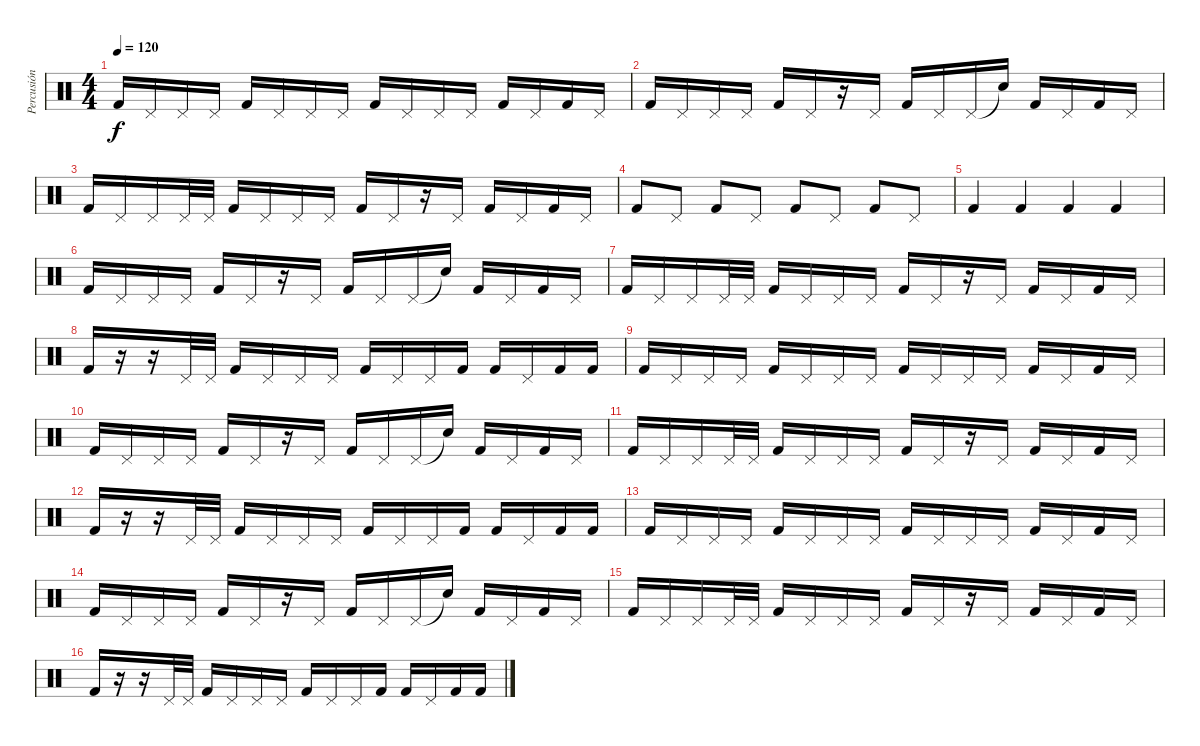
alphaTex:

\track ("Percusión" "Percusión") {instrument percussion}
\staff {score}
\articulation defaults
\ts (4 4)
\tempo 120
\clef neutral
\ks c "Kick (hit) 2".16{dy f} "Pedal Hi-Hat (hit)".16 "Pedal Hi-Hat (hit)".16 "Pedal Hi-Hat (hit)".16 "Kick (hit) 2".16 "Pedal Hi-Hat (hit)".16 "Pedal Hi-Hat (hit)".16 "Pedal Hi-Hat (hit)".16 "Kick (hit) 2".16 "Pedal Hi-Hat (hit)".16 "Pedal Hi-Hat (hit)".16 "Pedal Hi-Hat (hit)".16 "Kick (hit) 2".16 "Pedal Hi-Hat (hit)".16 "Kick (hit) 2".16 "Pedal Hi-Hat (hit)".16
|
"Kick (hit) 2".16 "Pedal Hi-Hat (hit)".16 "Pedal Hi-Hat (hit)".16 "Pedal Hi-Hat (hit)".16 "Kick (hit) 2".16 "Pedal Hi-Hat (hit)".16 r.16 "Pedal Hi-Hat (hit)".16 "Kick (hit) 2".16 "Pedal Hi-Hat (hit)".16 "Pedal Hi-Hat (hit)".16 "Snare (hit)"{t}.16 "Kick (hit) 2".16 "Pedal Hi-Hat (hit)".16 "Kick (hit) 2".16 "Pedal Hi-Hat (hit)".16 |
"Kick (hit) 2".16 "Pedal Hi-Hat (hit)".16 "Pedal Hi-Hat (hit)".16 "Pedal Hi-Hat (hit)".32 "Pedal Hi-Hat (hit)".32 "Kick (hit) 2".16 "Pedal Hi-Hat (hit)".16 "Pedal Hi-Hat (hit)".16 "Pedal Hi-Hat (hit)".16 "Kick (hit) 2".16 "Pedal Hi-Hat (hit)".16 r.16 "Pedal Hi-Hat (hit)".16 "Kick (hit) 2".16 "Pedal Hi-Hat (hit)".16 "Kick (hit) 2".16 "Pedal Hi-Hat (hit)".16 |
"Kick (hit) 2".8 "Pedal Hi-Hat (hit)".8 "Kick (hit) 2".8 "Pedal Hi-Hat (hit)".8 "Kick (hit) 2".8 "Pedal Hi-Hat (hit)".8 "Kick (hit) 2".8 "Pedal Hi-Hat (hit)".8 |
"Kick (hit) 2".4 "Kick (hit) 2".4 "Kick (hit) 2".4 "Kick (hit) 2".4 |
"Kick (hit) 2".16 "Pedal Hi-Hat (hit)".16 "Pedal Hi-Hat (hit)".16 "Pedal Hi-Hat (hit)".16 "Kick (hit) 2".16 "Pedal Hi-Hat (hit)".16 r.16 "Pedal Hi-Hat (hit)".16 "Kick (hit) 2".16 "Pedal Hi-Hat (hit)".16 "Pedal Hi-Hat (hit)".16 "Snare (hit)"{t}.16 "Kick (hit) 2".16 "Pedal Hi-Hat (hit)".16 "Kick (hit) 2".16 "Pedal Hi-Hat (hit)".16 |
"Kick (hit) 2".16 "Pedal Hi-Hat (hit)".16 "Pedal Hi-Hat (hit)".16 "Pedal Hi-Hat (hit)".32 "Pedal Hi-Hat (hit)".32 "Kick (hit) 2".16 "Pedal Hi-Hat (hit)".16 "Pedal Hi-Hat (hit)".16 "Pedal Hi-Hat (hit)".16 "Kick (hit) 2".16 "Pedal Hi-Hat (hit)".16 r.16 "Pedal Hi-Hat (hit)".16 "Kick (hit) 2".16 "Pedal Hi-Hat (hit)".16 "Kick (hit) 2".16 "Pedal Hi-Hat (hit)".16 |
"Kick (hit) 2".16 r.16 r.16 "Pedal Hi-Hat (hit)".32 "Pedal Hi-Hat (hit)".32 "Kick (hit) 2".16 "Pedal Hi-Hat (hit)".16 "Pedal Hi-Hat (hit)".16 "Pedal Hi-Hat (hit)".16 "Kick (hit) 2".16 "Pedal Hi-Hat (hit)".16 "Pedal Hi-Hat (hit)".16 "Kick (hit) 2".16 "Kick (hit) 2".16 "Pedal Hi-Hat (hit)".16 "Kick (hit) 2".16 "Kick (hit) 2".16 |
"Kick (hit) 2".16 "Pedal Hi-Hat (hit)".16 "Pedal Hi-Hat (hit)".16 "Pedal Hi-Hat (hit)".16 "Kick (hit) 2".16 "Pedal Hi-Hat (hit)".16 "Pedal Hi-Hat (hit)".16 "Pedal Hi-Hat (hit)".16 "Kick (hit) 2".16 "Pedal Hi-Hat (hit)".16 "Pedal Hi-Hat (hit)".16 "Pedal Hi-Hat (hit)".16 "Kick (hit) 2".16 "Pedal Hi-Hat (hit)".16 "Kick (hit) 2".16 "Pedal Hi-Hat (hit)".16 |
"Kick (hit) 2".16 "Pedal Hi-Hat (hit)".16 "Pedal Hi-Hat (hit)".16 "Pedal Hi-Hat (hit)".16 "Kick (hit) 2".16 "Pedal Hi-Hat (hit)".16 r.16 "Pedal Hi-Hat (hit)".16 "Kick (hit) 2".16 "Pedal Hi-Hat (hit)".16 "Pedal Hi-Hat (hit)".16 "Snare (hit)"{t}.16 "Kick (hit) 2".16 "Pedal Hi-Hat (hit)".16 "Kick (hit) 2".16 "Pedal Hi-Hat (hit)".16 |
"Kick (hit) 2".16 "Pedal Hi-Hat (hit)".16 "Pedal Hi-Hat (hit)".16 "Pedal Hi-Hat (hit)".32 "Pedal Hi-Hat (hit)".32 "Kick (hit) 2".16 "Pedal Hi-Hat (hit)".16 "Pedal Hi-Hat (hit)".16 "Pedal Hi-Hat (hit)".16 "Kick (hit) 2".16 "Pedal Hi-Hat (hit)".16 r.16 "Pedal Hi-Hat (hit)".16 "Kick (hit) 2".16 "Pedal Hi-Hat (hit)".16 "Kick (hit) 2".16 "Pedal Hi-Hat (hit)".16 |
"Kick (hit) 2".16 r.16 r.16 "Pedal Hi-Hat (hit)".32 "Pedal Hi-Hat (hit)".32 "Kick (hit) 2".16 "Pedal Hi-Hat (hit)".16 "Pedal Hi-Hat (hit)".16 "Pedal Hi-Hat (hit)".16 "Kick (hit) 2".16 "Pedal Hi-Hat (hit)".16 "Pedal Hi-Hat (hit)".16 "Kick (hit) 2".16 "Kick (hit) 2".16 "Pedal Hi-Hat (hit)".16 "Kick (hit) 2".16 "Kick (hit) 2".16 |
"Kick (hit) 2".16 "Pedal Hi-Hat (hit)".16 "Pedal Hi-Hat (hit)".16 "Pedal Hi-Hat (hit)".16 "Kick (hit) 2".16 "Pedal Hi-Hat (hit)".16 "Pedal Hi-Hat (hit)".16 "Pedal Hi-Hat (hit)".16 "Kick (hit) 2".16 "Pedal Hi-Hat (hit)".16 "Pedal Hi-Hat (hit)".16 "Pedal Hi-Hat (hit)".16 "Kick (hit) 2".16 "Pedal Hi-Hat (hit)".16 "Kick (hit) 2".16 "Pedal Hi-Hat (hit)".16 |
"Kick (hit) 2".16 "Pedal Hi-Hat (hit)".16 "Pedal Hi-Hat (hit)".16 "Pedal Hi-Hat (hit)".16 "Kick (hit) 2".16 "Pedal Hi-Hat (hit)".16 r.16 "Pedal Hi-Hat (hit)".16 "Kick (hit) 2".16 "Pedal Hi-Hat (hit)".16 "Pedal Hi-Hat (hit)".16 "Snare (hit)"{t}.16 "Kick (hit) 2".16 "Pedal Hi-Hat (hit)".16 "Kick (hit) 2".16 "Pedal Hi-Hat (hit)".16 |
"Kick (hit) 2".16 "Pedal Hi-Hat (hit)".16 "Pedal Hi-Hat (hit)".16 "Pedal Hi-Hat (hit)".32 "Pedal Hi-Hat (hit)".32 "Kick (hit) 2".16 "Pedal Hi-Hat (hit)".16 "Pedal Hi-Hat (hit)".16 "Pedal Hi-Hat (hit)".16 "Kick (hit) 2".16 "Pedal Hi-Hat (hit)".16 r.16 "Pedal Hi-Hat (hit)".16 "Kick (hit) 2".16 "Pedal Hi-Hat (hit)".16 "Kick (hit) 2".16 "Pedal Hi-Hat (hit)".16 |
"Kick (hit) 2".16 r.16 r.16 "Pedal Hi-Hat (hit)".32 "Pedal Hi-Hat (hit)".32 "Kick (hit) 2".16 "Pedal Hi-Hat (hit)".16 "Pedal Hi-Hat (hit)".16 "Pedal Hi-Hat (hit)".16 "Kick (hit) 2".16 "Pedal Hi-Hat (hit)".16 "Pedal Hi-Hat (hit)".16 "Kick (hit) 2".16 "Kick (hit) 2".16 "Pedal Hi-Hat (hit)".16 "Kick (hit) 2".16 "Kick (hit) 2".16
